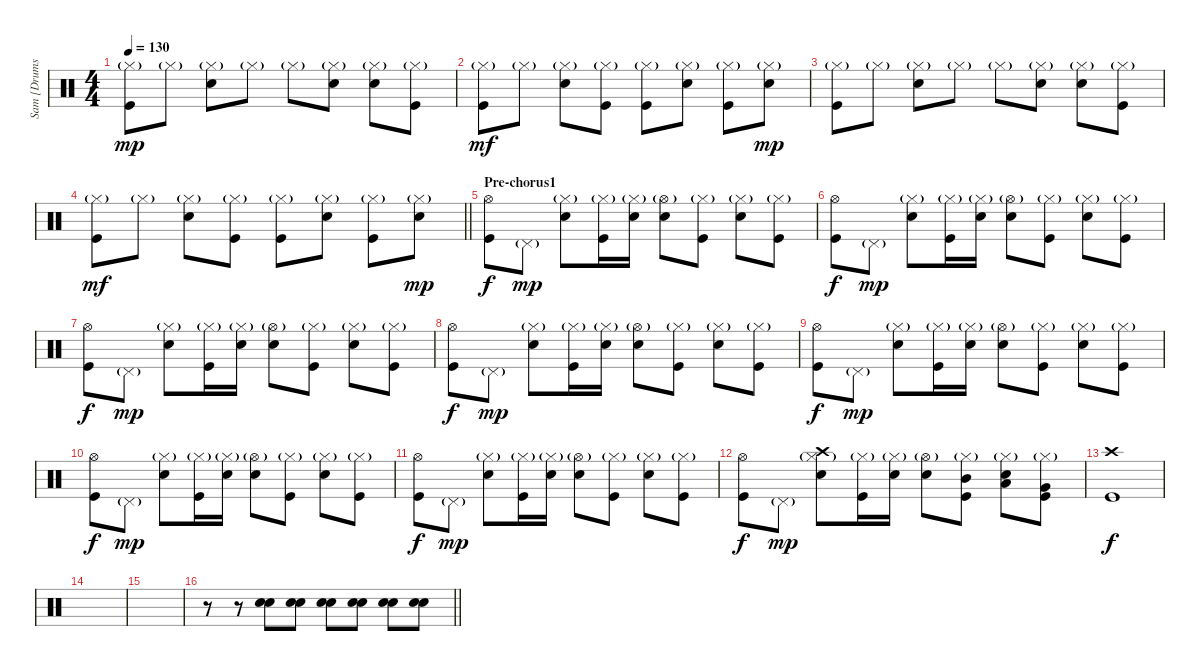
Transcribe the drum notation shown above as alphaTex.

\track ("Sam [Drums]" "Sam [Drums") {instrument percussion}
\staff {score}
\articulation defaults
\ts (4 4)
\tempo 130
\clef neutral
\ks c
("Hi-Hat (closed)"{g} "Kick (hit)").8{dy mp} "Hi-Hat (closed)"{g}.8 ("Hi-Hat (closed)"{g} "Snare (hit) 2").8 "Hi-Hat (closed)"{g}.8 "Hi-Hat (closed)"{g}.8 ("Hi-Hat (closed)"{g} "Snare (hit) 2").8 ("Hi-Hat (closed)"{g} "Snare (hit) 2").8 ("Hi-Hat (closed)"{g} "Kick (hit)").8 |
("Hi-Hat (closed)"{g} "Kick (hit)").8{dy mf} "Hi-Hat (closed)"{g}.8 ("Hi-Hat (closed)"{g} "Snare (hit) 2").8 ("Hi-Hat (closed)"{g} "Kick (hit)").8 ("Hi-Hat (closed)"{g} "Kick (hit)").8 ("Hi-Hat (closed)"{g} "Snare (hit) 2").8 ("Hi-Hat (closed)"{g} "Kick (hit)").8 ("Hi-Hat (closed)"{g} "Snare (hit) 2").8{dy mp} |
("Hi-Hat (closed)"{g} "Kick (hit)").8 "Hi-Hat (closed)"{g}.8 ("Hi-Hat (closed)"{g} "Snare (hit) 2").8 "Hi-Hat (closed)"{g}.8 "Hi-Hat (closed)"{g}.8 ("Hi-Hat (closed)"{g} "Snare (hit) 2").8 ("Hi-Hat (closed)"{g} "Snare (hit) 2").8 ("Hi-Hat (closed)"{g} "Kick (hit)").8 |
\barLineRight lightlight
("Hi-Hat (closed)"{g} "Kick (hit)").8{dy mf} "Hi-Hat (closed)"{g}.8 ("Hi-Hat (closed)"{g} "Snare (hit) 2").8 ("Hi-Hat (closed)"{g} "Kick (hit)").8 ("Hi-Hat (closed)"{g} "Kick (hit)").8 ("Hi-Hat (closed)"{g} "Snare (hit) 2").8 ("Hi-Hat (closed)"{g} "Kick (hit)").8 ("Hi-Hat (closed)"{g} "Snare (hit) 2").8{dy mp} |
\section ("" "Pre-chorus1")
("Hi-Hat (open)" "Kick (hit)").8{dy f} "Pedal Hi-Hat (hit)"{g}.8{dy mp} ("Hi-Hat (closed)"{g} "Snare (hit) 2").8 ("Hi-Hat (closed)"{g} "Kick (hit)").16 ("Hi-Hat (closed)"{g} "Snare (hit) 2").16 ("Hi-Hat (open)"{g} "Snare (hit) 2").8 ("Hi-Hat (closed)"{g} "Kick (hit)").8 ("Hi-Hat (closed)"{g} "Snare (hit) 2").8 ("Hi-Hat (closed)"{g} "Kick (hit)").8 |
("Hi-Hat (open)" "Kick (hit)").8{dy f} "Pedal Hi-Hat (hit)"{g}.8{dy mp} ("Hi-Hat (closed)"{g} "Snare (hit) 2").8 ("Hi-Hat (closed)"{g} "Kick (hit)").16 ("Hi-Hat (closed)"{g} "Snare (hit) 2").16 ("Hi-Hat (open)"{g} "Snare (hit) 2").8 ("Hi-Hat (closed)"{g} "Kick (hit)").8 ("Hi-Hat (closed)"{g} "Snare (hit) 2").8 ("Hi-Hat (closed)"{g} "Kick (hit)").8 |
("Hi-Hat (open)" "Kick (hit)").8{dy f} "Pedal Hi-Hat (hit)"{g}.8{dy mp} ("Hi-Hat (closed)"{g} "Snare (hit) 2").8 ("Hi-Hat (closed)"{g} "Kick (hit)").16 ("Hi-Hat (closed)"{g} "Snare (hit) 2").16 ("Hi-Hat (open)"{g} "Snare (hit) 2").8 ("Hi-Hat (closed)"{g} "Kick (hit)").8 ("Hi-Hat (closed)"{g} "Snare (hit) 2").8 ("Hi-Hat (closed)"{g} "Kick (hit)").8 |
("Hi-Hat (open)" "Kick (hit)").8{dy f} "Pedal Hi-Hat (hit)"{g}.8{dy mp} ("Hi-Hat (closed)"{g} "Snare (hit) 2").8 ("Hi-Hat (closed)"{g} "Kick (hit)").16 ("Hi-Hat (closed)"{g} "Snare (hit) 2").16 ("Hi-Hat (open)"{g} "Snare (hit) 2").8 ("Hi-Hat (closed)"{g} "Kick (hit)").8 ("Hi-Hat (closed)"{g} "Snare (hit) 2").8 ("Hi-Hat (closed)"{g} "Kick (hit)").8 |
("Hi-Hat (open)" "Kick (hit)").8{dy f} "Pedal Hi-Hat (hit)"{g}.8{dy mp} ("Hi-Hat (closed)"{g} "Snare (hit) 2").8 ("Hi-Hat (closed)"{g} "Kick (hit)").16 ("Hi-Hat (closed)"{g} "Snare (hit) 2").16 ("Hi-Hat (open)"{g} "Snare (hit) 2").8 ("Hi-Hat (closed)"{g} "Kick (hit)").8 ("Hi-Hat (closed)"{g} "Snare (hit) 2").8 ("Hi-Hat (closed)"{g} "Kick (hit)").8 |
("Hi-Hat (open)" "Kick (hit)").8{dy f} "Pedal Hi-Hat (hit)"{g}.8{dy mp} ("Hi-Hat (closed)"{g} "Snare (hit) 2").8 ("Hi-Hat (closed)"{g} "Kick (hit)").16 ("Hi-Hat (closed)"{g} "Snare (hit) 2").16 ("Hi-Hat (open)"{g} "Snare (hit) 2").8 ("Hi-Hat (closed)"{g} "Kick (hit)").8 ("Hi-Hat (closed)"{g} "Snare (hit) 2").8 ("Hi-Hat (closed)"{g} "Kick (hit)").8 |
("Hi-Hat (open)" "Kick (hit)").8{dy f} "Pedal Hi-Hat (hit)"{g}.8{dy mp} ("Hi-Hat (closed)"{g} "Snare (hit) 2").8 ("Hi-Hat (closed)"{g} "Kick (hit)").16 ("Hi-Hat (closed)"{g} "Snare (hit) 2").16 ("Hi-Hat (open)"{g} "Snare (hit) 2").8 ("Hi-Hat (closed)"{g} "Kick (hit)").8 ("Hi-Hat (closed)"{g} "Snare (hit) 2").8 ("Hi-Hat (closed)"{g} "Kick (hit)").8 |
("Hi-Hat (open)" "Kick (hit)").8{dy f} "Pedal Hi-Hat (hit)"{g}.8{dy mp} ("Hi-Hat (closed)"{g} "Crash high (hit)" "Snare (hit) 2").8 ("Hi-Hat (closed)"{g} "Kick (hit)").16 ("Hi-Hat (closed)"{g} "Snare (hit) 2").16 ("Hi-Hat (open)"{g} "Snare (hit) 2").8 ("Hi-Hat (closed)"{g} "Mid Tom (hit)" "Kick (hit)").8 ("Hi-Hat (closed)"{g} "Low Tom (hit)" "Snare (hit) 2").8 ("Hi-Hat (closed)"{g} "Very Low Tom (hit)" "Kick (hit)").8 |
("Crash high (hit)" "Kick (hit)").1{dy f} |
|
|
\barLineRight lightlight
r.8 r.8 ("Snare (hit) 2" "Snare (hit) 2").8 ("Snare (hit) 2" "Snare (hit) 2").8 ("Snare (hit) 2" "Snare (hit) 2").8 ("Snare (hit) 2" "Snare (hit) 2").8 ("Snare (hit) 2" "Snare (hit) 2").8 ("Snare (hit) 2" "Snare (hit) 2").8
